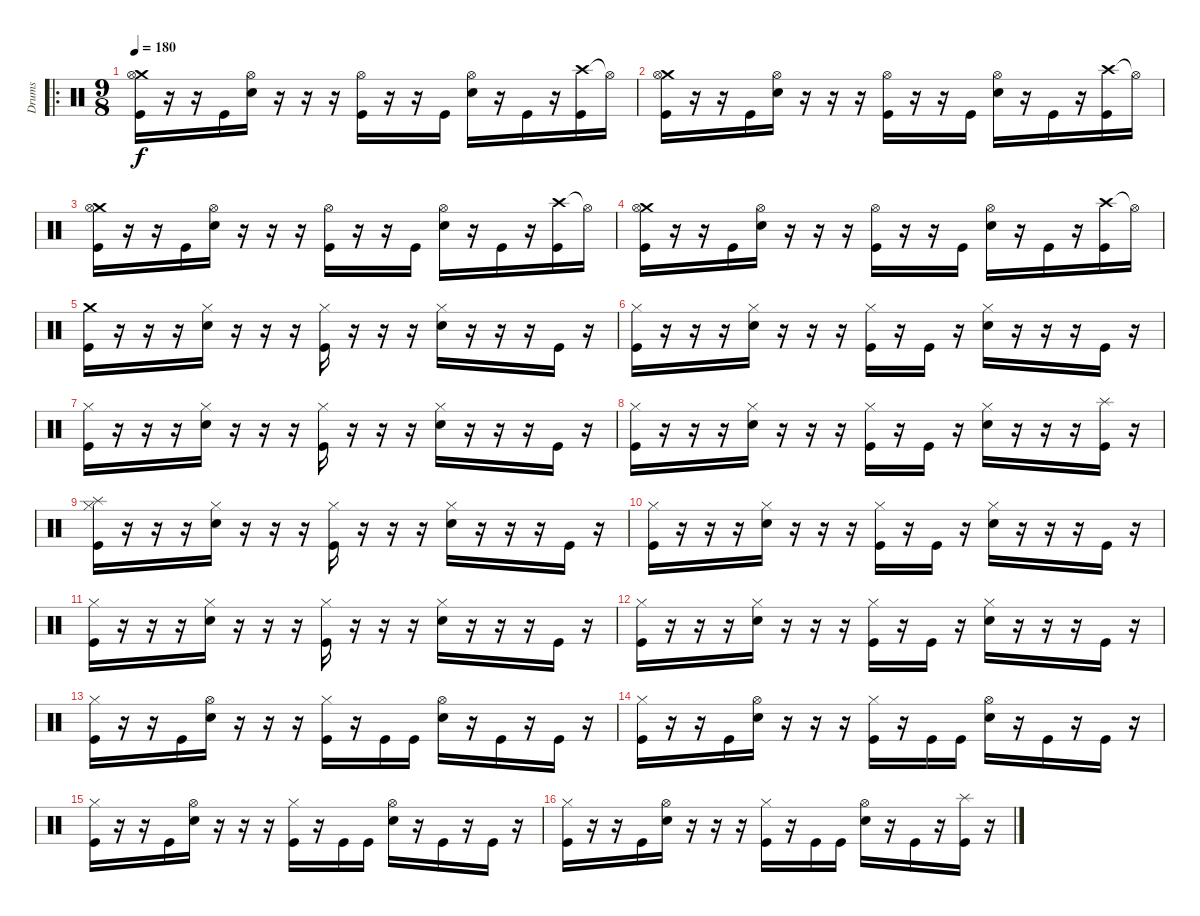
\track ("Drums" "Drums") {instrument percussion}
\staff {score}
\articulation defaults
\ro
\ts (9 8)
\tempo 180
\clef neutral
\ks c
("Crash medium (hit)" "Hi-Hat (open)" "Kick (hit)").16{dy f} r.16 r.16 "Kick (hit)".16 ("Hi-Hat (open)" "Snare (hit) 2").16 r.16 r.16 r.16 ("Hi-Hat (open)" "Kick (hit)").16 r.16 r.16 "Kick (hit)".16 ("Hi-Hat (open)" "Snare (hit) 2").16 r.16 "Kick (hit)".16 r.16 ("Crash high (hit)" "Kick (hit)").16 "Hi-Hat (open)"{t}.16 |
("Crash medium (hit)" "Hi-Hat (open)" "Kick (hit)").16 r.16 r.16 "Kick (hit)".16 ("Hi-Hat (open)" "Snare (hit) 2").16 r.16 r.16 r.16 ("Hi-Hat (open)" "Kick (hit)").16 r.16 r.16 "Kick (hit)".16 ("Hi-Hat (open)" "Snare (hit) 2").16 r.16 "Kick (hit)".16 r.16 ("Crash high (hit)" "Kick (hit)").16 "Hi-Hat (open)"{t}.16 |
("Crash medium (hit)" "Hi-Hat (open)" "Kick (hit)").16 r.16 r.16 "Kick (hit)".16 ("Hi-Hat (open)" "Snare (hit) 2").16 r.16 r.16 r.16 ("Hi-Hat (open)" "Kick (hit)").16 r.16 r.16 "Kick (hit)".16 ("Hi-Hat (open)" "Snare (hit) 2").16 r.16 "Kick (hit)".16 r.16 ("Crash high (hit)" "Kick (hit)").16 "Hi-Hat (open)"{t}.16 |
("Crash medium (hit)" "Hi-Hat (open)" "Kick (hit)").16 r.16 r.16 "Kick (hit)".16 ("Hi-Hat (open)" "Snare (hit) 2").16 r.16 r.16 r.16 ("Hi-Hat (open)" "Kick (hit)").16 r.16 r.16 "Kick (hit)".16 ("Hi-Hat (open)" "Snare (hit) 2").16 r.16 "Kick (hit)".16 r.16 ("Crash high (hit)" "Kick (hit)").16 "Hi-Hat (open)"{t}.16 |
("Crash medium (hit)" "Kick (hit)").16 r.16 r.16 r.16 ("Hi-Hat (closed)" "Snare (hit) 2").16 r.16 r.16 r.16 ("Hi-Hat (closed)" "Kick (hit)").16 r.16 r.16 r.16 ("Hi-Hat (closed)" "Snare (hit) 2").16 r.16 r.16 r.16 "Kick (hit)".16 r.16 |
("Hi-Hat (closed)" "Kick (hit)").16 r.16 r.16 r.16 ("Hi-Hat (closed)" "Snare (hit) 2").16 r.16 r.16 r.16 ("Hi-Hat (closed)" "Kick (hit)").16 r.16 "Kick (hit)".16 r.16 ("Hi-Hat (closed)" "Snare (hit) 2").16 r.16 r.16 r.16 "Kick (hit)".16 r.16 |
("Hi-Hat (closed)" "Kick (hit)").16 r.16 r.16 r.16 ("Hi-Hat (closed)" "Snare (hit) 2").16 r.16 r.16 r.16 ("Hi-Hat (closed)" "Kick (hit)").16 r.16 r.16 r.16 ("Hi-Hat (closed)" "Snare (hit) 2").16 r.16 r.16 r.16 "Kick (hit)".16 r.16 |
("Hi-Hat (closed)" "Kick (hit)").16 r.16 r.16 r.16 ("Hi-Hat (closed)" "Snare (hit) 2").16 r.16 r.16 r.16 ("Hi-Hat (closed)" "Kick (hit)").16 r.16 "Kick (hit)".16 r.16 ("Hi-Hat (closed)" "Snare (hit) 2").16 r.16 r.16 r.16 ("Splash (hit)" "Kick (hit)").16 r.16 |
("Splash (hit)" "Hi-Hat (closed)" "Kick (hit)").16 r.16 r.16 r.16 ("Hi-Hat (closed)" "Snare (hit) 2").16 r.16 r.16 r.16 ("Hi-Hat (closed)" "Kick (hit)").16 r.16 r.16 r.16 ("Hi-Hat (closed)" "Snare (hit) 2").16 r.16 r.16 r.16 "Kick (hit)".16 r.16 |
("Hi-Hat (closed)" "Kick (hit)").16 r.16 r.16 r.16 ("Hi-Hat (closed)" "Snare (hit) 2").16 r.16 r.16 r.16 ("Hi-Hat (closed)" "Kick (hit)").16 r.16 "Kick (hit)".16 r.16 ("Hi-Hat (closed)" "Snare (hit) 2").16 r.16 r.16 r.16 "Kick (hit)".16 r.16 |
("Hi-Hat (closed)" "Kick (hit)").16 r.16 r.16 r.16 ("Hi-Hat (closed)" "Snare (hit) 2").16 r.16 r.16 r.16 ("Hi-Hat (closed)" "Kick (hit)").16 r.16 r.16 r.16 ("Hi-Hat (closed)" "Snare (hit) 2").16 r.16 r.16 r.16 "Kick (hit)".16 r.16 |
("Hi-Hat (closed)" "Kick (hit)").16 r.16 r.16 r.16 ("Hi-Hat (closed)" "Snare (hit) 2").16 r.16 r.16 r.16 ("Hi-Hat (closed)" "Kick (hit)").16 r.16 "Kick (hit)".16 r.16 ("Hi-Hat (closed)" "Snare (hit) 2").16 r.16 r.16 r.16 "Kick (hit)".16 r.16 |
("Hi-Hat (closed)" "Kick (hit)").16 r.16 r.16 "Kick (hit)".16 ("Hi-Hat (open)" "Snare (hit) 2").16 r.16 r.16 r.16 ("Hi-Hat (closed)" "Kick (hit)").16 r.16 "Kick (hit)".16 "Kick (hit)".16 ("Hi-Hat (open)" "Snare (hit) 2").16 r.16 "Kick (hit)".16 r.16 "Kick (hit)".16 r.16 |
("Hi-Hat (closed)" "Kick (hit)").16 r.16 r.16 "Kick (hit)".16 ("Hi-Hat (open)" "Snare (hit) 2").16 r.16 r.16 r.16 ("Hi-Hat (closed)" "Kick (hit)").16 r.16 "Kick (hit)".16 "Kick (hit)".16 ("Hi-Hat (open)" "Snare (hit) 2").16 r.16 "Kick (hit)".16 r.16 "Kick (hit)".16 r.16 |
("Hi-Hat (closed)" "Kick (hit)").16 r.16 r.16 "Kick (hit)".16 ("Hi-Hat (open)" "Snare (hit) 2").16 r.16 r.16 r.16 ("Hi-Hat (closed)" "Kick (hit)").16 r.16 "Kick (hit)".16 "Kick (hit)".16 ("Hi-Hat (open)" "Snare (hit) 2").16 r.16 "Kick (hit)".16 r.16 "Kick (hit)".16 r.16 |
("Hi-Hat (closed)" "Kick (hit)").16 r.16 r.16 "Kick (hit)".16 ("Hi-Hat (open)" "Snare (hit) 2").16 r.16 r.16 r.16 ("Hi-Hat (closed)" "Kick (hit)").16 r.16 "Kick (hit)".16 "Kick (hit)".16 ("Hi-Hat (open)" "Snare (hit) 2").16 r.16 "Kick (hit)".16 r.16 ("Splash (hit)" "Kick (hit)").16 r.16
